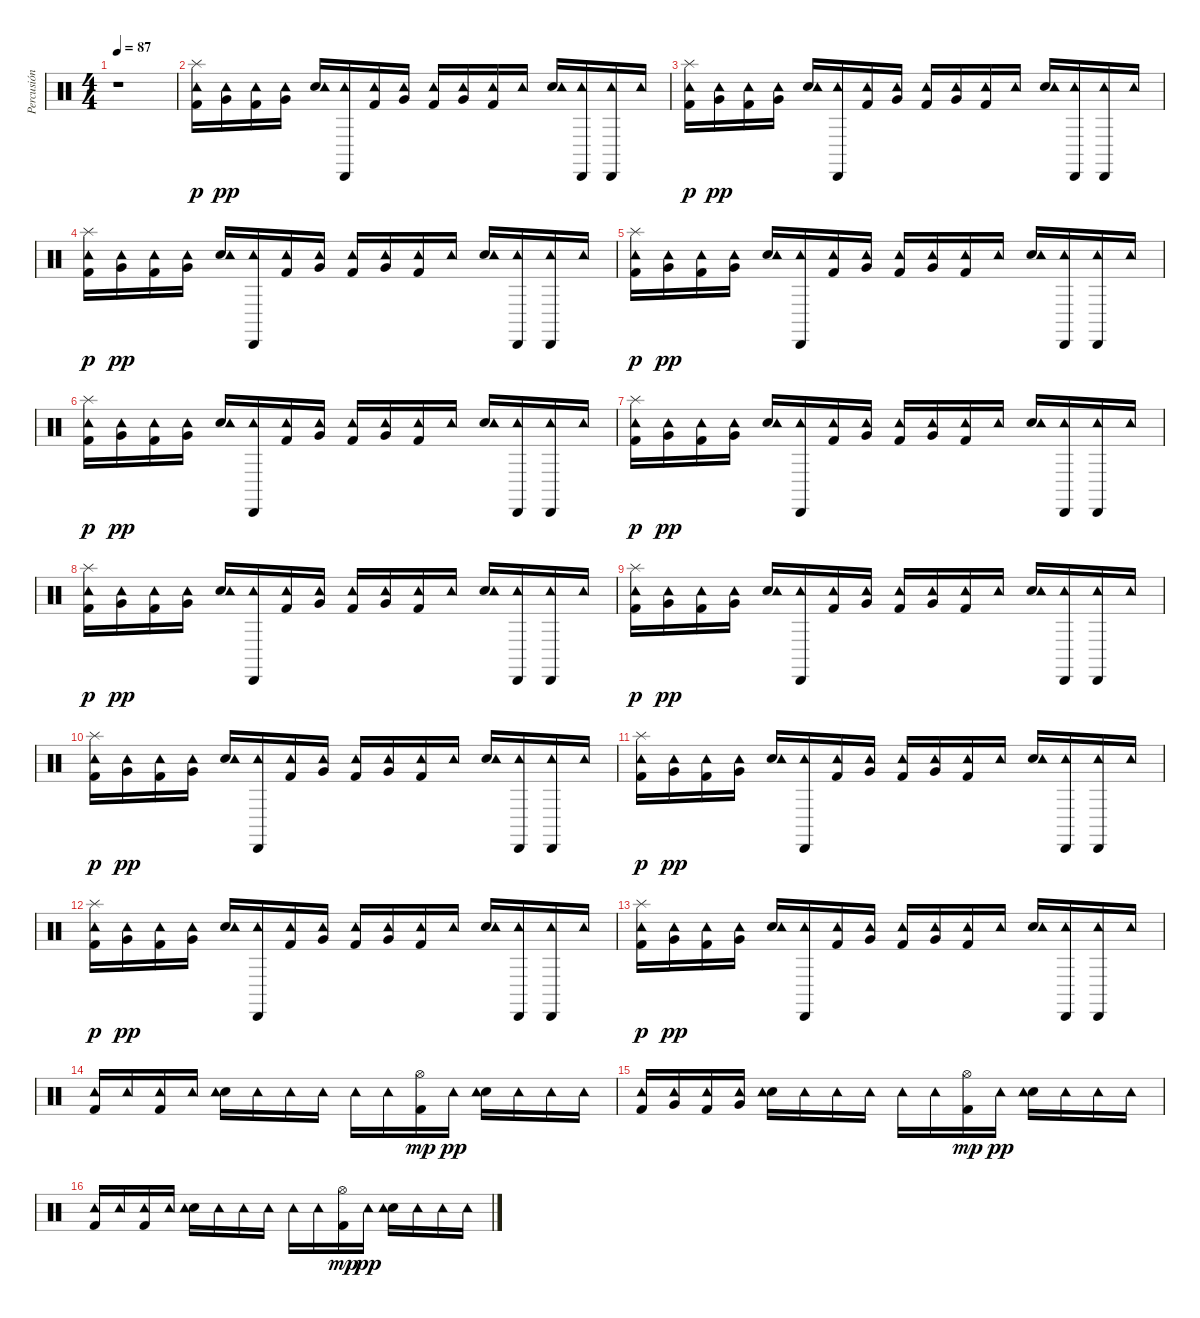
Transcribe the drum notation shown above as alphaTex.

\track ("Percusión" "Percusión") {instrument percussion}
\staff {score}
\articulation defaults
\ts (4 4)
\tempo 87
\clef neutral
\ks c
r.1{dy p} |
("Kick (hit) 2" "Tambourine (hit)" "Splash (hit)").16 ("Very Low Tom (hit)" "Tambourine (hit)").16{dy pp} ("Kick (hit) 2" "Tambourine (hit)").16 ("Very Low Tom (hit)" "Tambourine (hit)").16 ("Electric Snare (hit)" "Tambourine (hit)").16 ("Cabasa (hit)" "Tambourine (hit)").16 ("Kick (hit) 2" "Tambourine (hit)").16 ("Very Low Tom (hit)" "Tambourine (hit)").16 ("Kick (hit) 2" "Tambourine (hit)").16 ("Very Low Tom (hit)" "Tambourine (hit)").16 ("Kick (hit) 2" "Tambourine (hit)").16 "Tambourine (hit)".16 ("Electric Snare (hit)" "Tambourine (hit)").16 ("Cabasa (hit)" "Tambourine (hit)").16 ("Cabasa (hit)" "Tambourine (hit)").16 "Tambourine (hit)".16 |
("Kick (hit) 2" "Tambourine (hit)" "Splash (hit)").16{dy p} ("Very Low Tom (hit)" "Tambourine (hit)").16{dy pp} ("Kick (hit) 2" "Tambourine (hit)").16 ("Very Low Tom (hit)" "Tambourine (hit)").16 ("Electric Snare (hit)" "Tambourine (hit)").16 ("Cabasa (hit)" "Tambourine (hit)").16 ("Kick (hit) 2" "Tambourine (hit)").16 ("Very Low Tom (hit)" "Tambourine (hit)").16 ("Kick (hit) 2" "Tambourine (hit)").16 ("Very Low Tom (hit)" "Tambourine (hit)").16 ("Kick (hit) 2" "Tambourine (hit)").16 "Tambourine (hit)".16 ("Electric Snare (hit)" "Tambourine (hit)").16 ("Cabasa (hit)" "Tambourine (hit)").16 ("Cabasa (hit)" "Tambourine (hit)").16 "Tambourine (hit)".16 |
("Kick (hit) 2" "Tambourine (hit)" "Splash (hit)").16{dy p} ("Very Low Tom (hit)" "Tambourine (hit)").16{dy pp} ("Kick (hit) 2" "Tambourine (hit)").16 ("Very Low Tom (hit)" "Tambourine (hit)").16 ("Electric Snare (hit)" "Tambourine (hit)").16 ("Cabasa (hit)" "Tambourine (hit)").16 ("Kick (hit) 2" "Tambourine (hit)").16 ("Very Low Tom (hit)" "Tambourine (hit)").16 ("Kick (hit) 2" "Tambourine (hit)").16 ("Very Low Tom (hit)" "Tambourine (hit)").16 ("Kick (hit) 2" "Tambourine (hit)").16 "Tambourine (hit)".16 ("Electric Snare (hit)" "Tambourine (hit)").16 ("Cabasa (hit)" "Tambourine (hit)").16 ("Cabasa (hit)" "Tambourine (hit)").16 "Tambourine (hit)".16 |
("Kick (hit) 2" "Tambourine (hit)" "Splash (hit)").16{dy p} ("Very Low Tom (hit)" "Tambourine (hit)").16{dy pp} ("Kick (hit) 2" "Tambourine (hit)").16 ("Very Low Tom (hit)" "Tambourine (hit)").16 ("Electric Snare (hit)" "Tambourine (hit)").16 ("Cabasa (hit)" "Tambourine (hit)").16 ("Kick (hit) 2" "Tambourine (hit)").16 ("Very Low Tom (hit)" "Tambourine (hit)").16 ("Kick (hit) 2" "Tambourine (hit)").16 ("Very Low Tom (hit)" "Tambourine (hit)").16 ("Kick (hit) 2" "Tambourine (hit)").16 "Tambourine (hit)".16 ("Electric Snare (hit)" "Tambourine (hit)").16 ("Cabasa (hit)" "Tambourine (hit)").16 ("Cabasa (hit)" "Tambourine (hit)").16 "Tambourine (hit)".16 |
("Kick (hit) 2" "Tambourine (hit)" "Splash (hit)").16{dy p} ("Very Low Tom (hit)" "Tambourine (hit)").16{dy pp} ("Kick (hit) 2" "Tambourine (hit)").16 ("Very Low Tom (hit)" "Tambourine (hit)").16 ("Electric Snare (hit)" "Tambourine (hit)").16 ("Cabasa (hit)" "Tambourine (hit)").16 ("Kick (hit) 2" "Tambourine (hit)").16 ("Very Low Tom (hit)" "Tambourine (hit)").16 ("Kick (hit) 2" "Tambourine (hit)").16 ("Very Low Tom (hit)" "Tambourine (hit)").16 ("Kick (hit) 2" "Tambourine (hit)").16 "Tambourine (hit)".16 ("Electric Snare (hit)" "Tambourine (hit)").16 ("Cabasa (hit)" "Tambourine (hit)").16 ("Cabasa (hit)" "Tambourine (hit)").16 "Tambourine (hit)".16 |
("Kick (hit) 2" "Tambourine (hit)" "Splash (hit)").16{dy p} ("Very Low Tom (hit)" "Tambourine (hit)").16{dy pp} ("Kick (hit) 2" "Tambourine (hit)").16 ("Very Low Tom (hit)" "Tambourine (hit)").16 ("Electric Snare (hit)" "Tambourine (hit)").16 ("Cabasa (hit)" "Tambourine (hit)").16 ("Kick (hit) 2" "Tambourine (hit)").16 ("Very Low Tom (hit)" "Tambourine (hit)").16 ("Kick (hit) 2" "Tambourine (hit)").16 ("Very Low Tom (hit)" "Tambourine (hit)").16 ("Kick (hit) 2" "Tambourine (hit)").16 "Tambourine (hit)".16 ("Electric Snare (hit)" "Tambourine (hit)").16 ("Cabasa (hit)" "Tambourine (hit)").16 ("Cabasa (hit)" "Tambourine (hit)").16 "Tambourine (hit)".16 |
("Kick (hit) 2" "Tambourine (hit)" "Splash (hit)").16{dy p} ("Very Low Tom (hit)" "Tambourine (hit)").16{dy pp} ("Kick (hit) 2" "Tambourine (hit)").16 ("Very Low Tom (hit)" "Tambourine (hit)").16 ("Electric Snare (hit)" "Tambourine (hit)").16 ("Cabasa (hit)" "Tambourine (hit)").16 ("Kick (hit) 2" "Tambourine (hit)").16 ("Very Low Tom (hit)" "Tambourine (hit)").16 ("Kick (hit) 2" "Tambourine (hit)").16 ("Very Low Tom (hit)" "Tambourine (hit)").16 ("Kick (hit) 2" "Tambourine (hit)").16 "Tambourine (hit)".16 ("Electric Snare (hit)" "Tambourine (hit)").16 ("Cabasa (hit)" "Tambourine (hit)").16 ("Cabasa (hit)" "Tambourine (hit)").16 "Tambourine (hit)".16 |
("Kick (hit) 2" "Tambourine (hit)" "Splash (hit)").16{dy p} ("Very Low Tom (hit)" "Tambourine (hit)").16{dy pp} ("Kick (hit) 2" "Tambourine (hit)").16 ("Very Low Tom (hit)" "Tambourine (hit)").16 ("Electric Snare (hit)" "Tambourine (hit)").16 ("Cabasa (hit)" "Tambourine (hit)").16 ("Kick (hit) 2" "Tambourine (hit)").16 ("Very Low Tom (hit)" "Tambourine (hit)").16 ("Kick (hit) 2" "Tambourine (hit)").16 ("Very Low Tom (hit)" "Tambourine (hit)").16 ("Kick (hit) 2" "Tambourine (hit)").16 "Tambourine (hit)".16 ("Electric Snare (hit)" "Tambourine (hit)").16 ("Cabasa (hit)" "Tambourine (hit)").16 ("Cabasa (hit)" "Tambourine (hit)").16 "Tambourine (hit)".16 |
("Kick (hit) 2" "Tambourine (hit)" "Splash (hit)").16{dy p} ("Very Low Tom (hit)" "Tambourine (hit)").16{dy pp} ("Kick (hit) 2" "Tambourine (hit)").16 ("Very Low Tom (hit)" "Tambourine (hit)").16 ("Electric Snare (hit)" "Tambourine (hit)").16 ("Cabasa (hit)" "Tambourine (hit)").16 ("Kick (hit) 2" "Tambourine (hit)").16 ("Very Low Tom (hit)" "Tambourine (hit)").16 ("Kick (hit) 2" "Tambourine (hit)").16 ("Very Low Tom (hit)" "Tambourine (hit)").16 ("Kick (hit) 2" "Tambourine (hit)").16 "Tambourine (hit)".16 ("Electric Snare (hit)" "Tambourine (hit)").16 ("Cabasa (hit)" "Tambourine (hit)").16 ("Cabasa (hit)" "Tambourine (hit)").16 "Tambourine (hit)".16 |
("Kick (hit) 2" "Tambourine (hit)" "Splash (hit)").16{dy p} ("Very Low Tom (hit)" "Tambourine (hit)").16{dy pp} ("Kick (hit) 2" "Tambourine (hit)").16 ("Very Low Tom (hit)" "Tambourine (hit)").16 ("Electric Snare (hit)" "Tambourine (hit)").16 ("Cabasa (hit)" "Tambourine (hit)").16 ("Kick (hit) 2" "Tambourine (hit)").16 ("Very Low Tom (hit)" "Tambourine (hit)").16 ("Kick (hit) 2" "Tambourine (hit)").16 ("Very Low Tom (hit)" "Tambourine (hit)").16 ("Kick (hit) 2" "Tambourine (hit)").16 "Tambourine (hit)".16 ("Electric Snare (hit)" "Tambourine (hit)").16 ("Cabasa (hit)" "Tambourine (hit)").16 ("Cabasa (hit)" "Tambourine (hit)").16 "Tambourine (hit)".16 |
("Kick (hit) 2" "Tambourine (hit)" "Splash (hit)").16{dy p} ("Very Low Tom (hit)" "Tambourine (hit)").16{dy pp} ("Kick (hit) 2" "Tambourine (hit)").16 ("Very Low Tom (hit)" "Tambourine (hit)").16 ("Electric Snare (hit)" "Tambourine (hit)").16 ("Cabasa (hit)" "Tambourine (hit)").16 ("Kick (hit) 2" "Tambourine (hit)").16 ("Very Low Tom (hit)" "Tambourine (hit)").16 ("Kick (hit) 2" "Tambourine (hit)").16 ("Very Low Tom (hit)" "Tambourine (hit)").16 ("Kick (hit) 2" "Tambourine (hit)").16 "Tambourine (hit)".16 ("Electric Snare (hit)" "Tambourine (hit)").16 ("Cabasa (hit)" "Tambourine (hit)").16 ("Cabasa (hit)" "Tambourine (hit)").16 "Tambourine (hit)".16 |
("Kick (hit) 2" "Tambourine (hit)" "Splash (hit)").16{dy p} ("Very Low Tom (hit)" "Tambourine (hit)").16{dy pp} ("Kick (hit) 2" "Tambourine (hit)").16 ("Very Low Tom (hit)" "Tambourine (hit)").16 ("Electric Snare (hit)" "Tambourine (hit)").16 ("Cabasa (hit)" "Tambourine (hit)").16 ("Kick (hit) 2" "Tambourine (hit)").16 ("Very Low Tom (hit)" "Tambourine (hit)").16 ("Kick (hit) 2" "Tambourine (hit)").16 ("Very Low Tom (hit)" "Tambourine (hit)").16 ("Kick (hit) 2" "Tambourine (hit)").16 "Tambourine (hit)".16 ("Electric Snare (hit)" "Tambourine (hit)").16 ("Cabasa (hit)" "Tambourine (hit)").16 ("Cabasa (hit)" "Tambourine (hit)").16 "Tambourine (hit)".16 |
("Kick (hit) 2" "Tambourine (hit)").16 "Tambourine (hit)".16 ("Kick (hit) 2" "Tambourine (hit)").16 "Tambourine (hit)".16 ("Electric Snare (hit)" "Tambourine (hit)").16 "Tambourine (hit)".16 "Tambourine (hit)".16 "Tambourine (hit)".16 "Tambourine (hit)".16 "Tambourine (hit)".16 ("Kick (hit) 2" "Hi-Hat (open)").16{dy mp} "Tambourine (hit)".16{dy pp} ("Electric Snare (hit)" "Tambourine (hit)").16 "Tambourine (hit)".16 "Tambourine (hit)".16 "Tambourine (hit)".16 |
("Kick (hit) 2" "Tambourine (hit)").16 ("Very Low Tom (hit)" "Tambourine (hit)").16 ("Kick (hit) 2" "Tambourine (hit)").16 ("Very Low Tom (hit)" "Tambourine (hit)").16 ("Electric Snare (hit)" "Tambourine (hit)").16 "Tambourine (hit)".16 "Tambourine (hit)".16 "Tambourine (hit)".16 "Tambourine (hit)".16 "Tambourine (hit)".16 ("Kick (hit) 2" "Hi-Hat (open)").16{dy mp} "Tambourine (hit)".16{dy pp} ("Electric Snare (hit)" "Tambourine (hit)").16 "Tambourine (hit)".16 "Tambourine (hit)".16 "Tambourine (hit)".16 |
("Kick (hit) 2" "Tambourine (hit)").16 "Tambourine (hit)".16 ("Kick (hit) 2" "Tambourine (hit)").16 "Tambourine (hit)".16 ("Electric Snare (hit)" "Tambourine (hit)").16 "Tambourine (hit)".16 "Tambourine (hit)".16 "Tambourine (hit)".16 "Tambourine (hit)".16 "Tambourine (hit)".16 ("Kick (hit) 2" "Hi-Hat (open)").16{dy mp} "Tambourine (hit)".16{dy pp} ("Electric Snare (hit)" "Tambourine (hit)").16 "Tambourine (hit)".16 "Tambourine (hit)".16 "Tambourine (hit)".16
